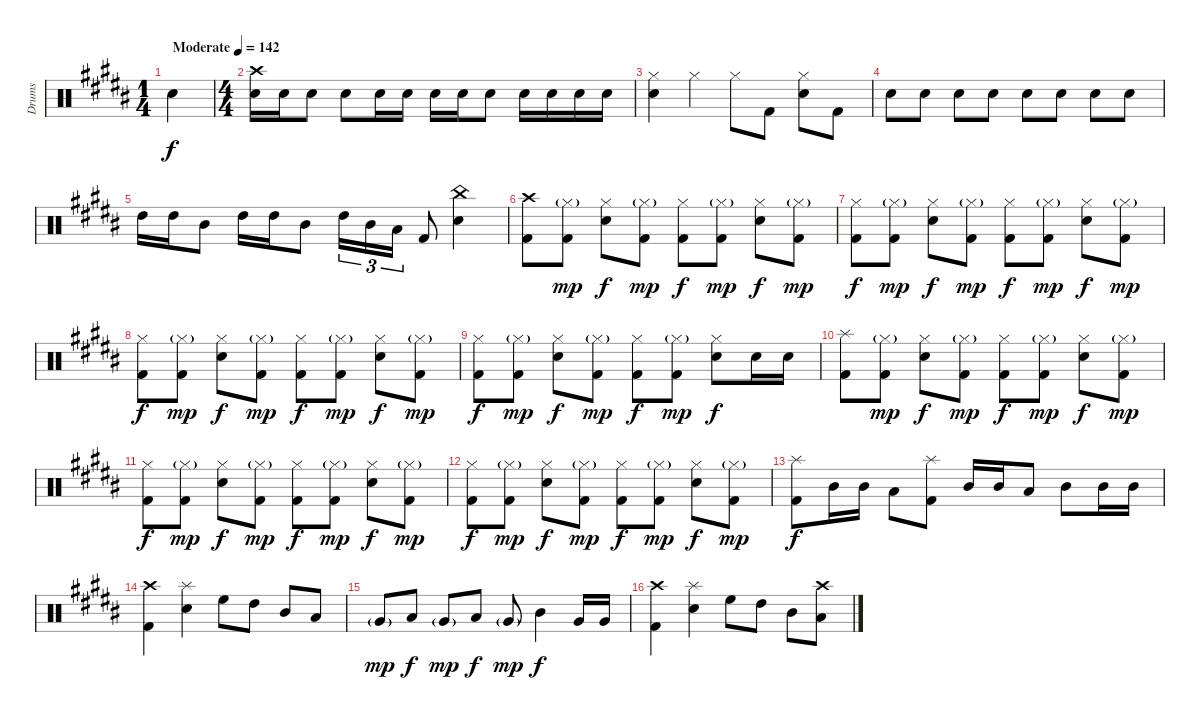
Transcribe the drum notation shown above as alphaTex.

\track ("Drums" "Drums") {instrument percussion}
\staff {score}
\articulation defaults
\ts (1 4)
\tempo (142 "Moderate")
\clef neutral
\ks b "Snare (hit) 2".4{dy f}
|
\ts (4 4)
("Crash high (hit)" "Snare (hit) 2").16 "Snare (hit) 2".16 "Snare (hit) 2".8 "Snare (hit) 2".8 "Snare (hit) 2".16 "Snare (hit) 2".16 "Snare (hit) 2".16 "Snare (hit) 2".16 "Snare (hit) 2".8 "Snare (hit) 2".16 "Snare (hit) 2".16 "Snare (hit) 2".16 "Snare (hit) 2".16 |
("Hi-Hat (closed)" "Snare (hit) 2").4 "Hi-Hat (closed)".4 "Hi-Hat (closed)".8 "Kick (hit) 2".8 ("Hi-Hat (closed)" "Snare (hit) 2").8 "Kick (hit) 2".8 |
"Snare (hit) 2".8 "Snare (hit) 2".8 "Snare (hit) 2".8 "Snare (hit) 2".8 "Snare (hit) 2".8 "Snare (hit) 2".8 "Snare (hit) 2".8 "Snare (hit) 2".8 |
"High Tom (hit)".16 "High Tom (hit)".16 "Mid Tom (hit)".8 "High Tom (hit)".16 "High Tom (hit)".16 "Mid Tom (hit)".8 "High Tom (hit)".16{tu (3 2)} "Mid Tom (hit)".16{tu (3 2)} "Low Tom (hit)".16{tu (3 2)} "Kick (hit) 2".8 ("China (hit)" "Snare (hit) 2").4 |
("Crash high (hit)" "Kick (hit) 2").8 ("Hi-Hat (closed)"{g} "Kick (hit) 2").8{dy mp} ("Hi-Hat (closed)" "Electric Snare (hit)").8{dy f} ("Hi-Hat (closed)"{g} "Kick (hit) 2").8{dy mp} ("Hi-Hat (closed)" "Kick (hit) 2").8{dy f} ("Hi-Hat (closed)"{g} "Kick (hit) 2").8{dy mp} ("Hi-Hat (closed)" "Electric Snare (hit)").8{dy f} ("Hi-Hat (closed)"{g} "Kick (hit) 2").8{dy mp} |
("Hi-Hat (closed)" "Kick (hit) 2").8{dy f} ("Hi-Hat (closed)"{g} "Kick (hit) 2").8{dy mp} ("Hi-Hat (closed)" "Electric Snare (hit)").8{dy f} ("Hi-Hat (closed)"{g} "Kick (hit) 2").8{dy mp} ("Hi-Hat (closed)" "Kick (hit) 2").8{dy f} ("Hi-Hat (closed)"{g} "Kick (hit) 2").8{dy mp} ("Hi-Hat (closed)" "Electric Snare (hit)").8{dy f} ("Hi-Hat (closed)"{g} "Kick (hit) 2").8{dy mp} |
("Hi-Hat (closed)" "Kick (hit) 2").8{dy f} ("Hi-Hat (closed)"{g} "Kick (hit) 2").8{dy mp} ("Hi-Hat (closed)" "Electric Snare (hit)").8{dy f} ("Hi-Hat (closed)"{g} "Kick (hit) 2").8{dy mp} ("Hi-Hat (closed)" "Kick (hit) 2").8{dy f} ("Hi-Hat (closed)"{g} "Kick (hit) 2").8{dy mp} ("Hi-Hat (closed)" "Electric Snare (hit)").8{dy f} ("Hi-Hat (closed)"{g} "Kick (hit) 2").8{dy mp} |
("Hi-Hat (closed)" "Kick (hit) 2").8{dy f} ("Hi-Hat (closed)"{g} "Kick (hit) 2").8{dy mp} ("Hi-Hat (closed)" "Electric Snare (hit)").8{dy f} ("Hi-Hat (closed)"{g} "Kick (hit) 2").8{dy mp} ("Hi-Hat (closed)" "Kick (hit) 2").8{dy f} ("Hi-Hat (closed)"{g} "Kick (hit) 2").8{dy mp} ("Hi-Hat (closed)" "Electric Snare (hit)").8{dy f} "Electric Snare (hit)".16 "Electric Snare (hit)".16 |
("Splash (hit)" "Kick (hit) 2").8 ("Hi-Hat (closed)"{g} "Kick (hit) 2").8{dy mp} ("Hi-Hat (closed)" "Electric Snare (hit)").8{dy f} ("Hi-Hat (closed)"{g} "Kick (hit) 2").8{dy mp} ("Hi-Hat (closed)" "Kick (hit) 2").8{dy f} ("Hi-Hat (closed)"{g} "Kick (hit) 2").8{dy mp} ("Hi-Hat (closed)" "Electric Snare (hit)").8{dy f} ("Hi-Hat (closed)"{g} "Kick (hit) 2").8{dy mp} |
("Hi-Hat (closed)" "Kick (hit) 2").8{dy f} ("Hi-Hat (closed)"{g} "Kick (hit) 2").8{dy mp} ("Hi-Hat (closed)" "Electric Snare (hit)").8{dy f} ("Hi-Hat (closed)"{g} "Kick (hit) 2").8{dy mp} ("Hi-Hat (closed)" "Kick (hit) 2").8{dy f} ("Hi-Hat (closed)"{g} "Kick (hit) 2").8{dy mp} ("Hi-Hat (closed)" "Electric Snare (hit)").8{dy f} ("Hi-Hat (closed)"{g} "Kick (hit) 2").8{dy mp} |
("Hi-Hat (closed)" "Kick (hit) 2").8{dy f} ("Hi-Hat (closed)"{g} "Kick (hit) 2").8{dy mp} ("Hi-Hat (closed)" "Electric Snare (hit)").8{dy f} ("Hi-Hat (closed)"{g} "Kick (hit) 2").8{dy mp} ("Hi-Hat (closed)" "Kick (hit) 2").8{dy f} ("Hi-Hat (closed)"{g} "Kick (hit) 2").8{dy mp} ("Hi-Hat (closed)" "Electric Snare (hit)").8{dy f} ("Hi-Hat (closed)"{g} "Kick (hit) 2").8{dy mp} |
("Splash (hit)" "Kick (hit) 2").8{dy f} "Mid Tom (hit)".16 "Mid Tom (hit)".16 "Low Tom (hit)".8 ("Splash (hit)" "Kick (hit) 2").8 "Mid Tom (hit)".16 "Mid Tom (hit)".16 "Low Tom (hit)".8 "Mid Tom (hit)".8 "Mid Tom (hit)".16 "Mid Tom (hit)".16 |
("Crash high (hit)" "Kick (hit) 2").4 ("Splash (hit)" "Electric Snare (hit)").4 "High Floor Tom (hit)".8 "High Tom (hit)".8 "Mid Tom (hit)".8 "Low Tom (hit)".8 |
"Very Low Tom (hit)"{g}.8{dy mp} "Low Tom (hit)".8{dy f} "Very Low Tom (hit)"{g}.8{dy mp} "Low Tom (hit)".8{dy f} "Very Low Tom (hit)"{g}.8{dy mp} "Mid Tom (hit)".4{dy f} "Very Low Tom (hit)".16 "Very Low Tom (hit)".16 |
("Crash high (hit)" "Kick (hit) 2").4 ("Splash (hit)" "Electric Snare (hit)").4 "High Floor Tom (hit)".8 "High Tom (hit)".8 "Mid Tom (hit)".8 ("Crash high (hit)" "Low Tom (hit)").8
